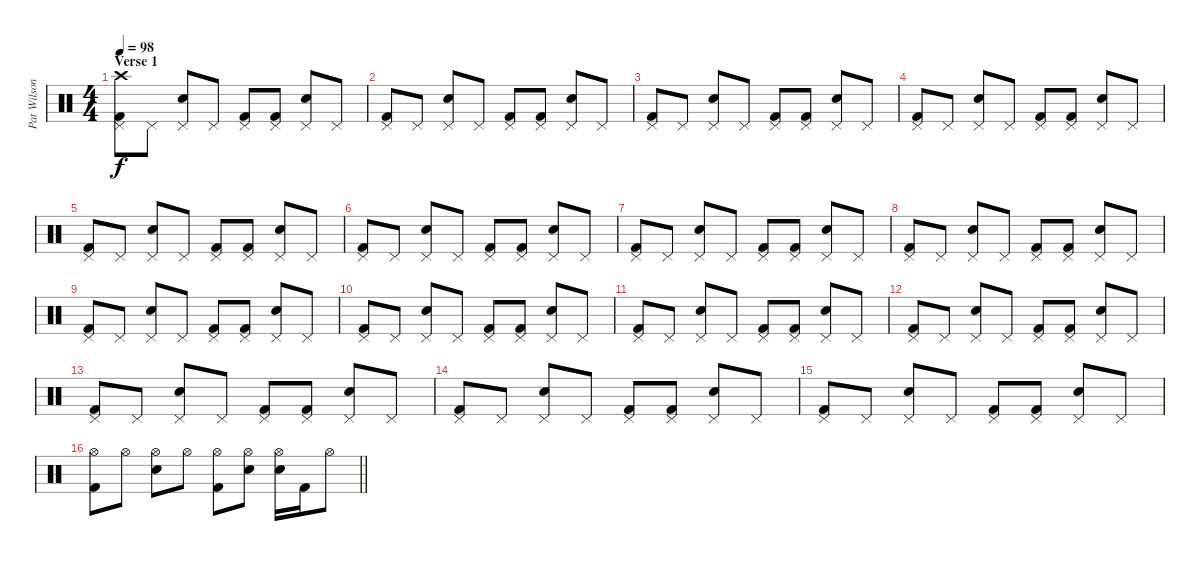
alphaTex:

\track ("Pat Wilson - Drums" "Pat Wilson") {instrument percussion}
\staff {score}
\articulation defaults
\ts (4 4)
\section ("" "Verse 1")
\tempo 98
\clef neutral
\ks c
("Crash high (hit)" "Pedal Hi-Hat (hit)" "Kick (hit) 2").8{dy f} "Pedal Hi-Hat (hit)".8 ("Pedal Hi-Hat (hit)" "Electric Snare (hit)").8 "Pedal Hi-Hat (hit)".8 ("Pedal Hi-Hat (hit)" "Kick (hit) 2").8 ("Pedal Hi-Hat (hit)" "Kick (hit) 2").8 ("Pedal Hi-Hat (hit)" "Electric Snare (hit)").8 "Pedal Hi-Hat (hit)".8 |
("Pedal Hi-Hat (hit)" "Kick (hit) 2").8 "Pedal Hi-Hat (hit)".8 ("Pedal Hi-Hat (hit)" "Electric Snare (hit)").8 "Pedal Hi-Hat (hit)".8 ("Pedal Hi-Hat (hit)" "Kick (hit) 2").8 ("Pedal Hi-Hat (hit)" "Kick (hit) 2").8 ("Pedal Hi-Hat (hit)" "Electric Snare (hit)").8 "Pedal Hi-Hat (hit)".8 |
("Pedal Hi-Hat (hit)" "Kick (hit) 2").8 "Pedal Hi-Hat (hit)".8 ("Pedal Hi-Hat (hit)" "Electric Snare (hit)").8 "Pedal Hi-Hat (hit)".8 ("Pedal Hi-Hat (hit)" "Kick (hit) 2").8 ("Pedal Hi-Hat (hit)" "Kick (hit) 2").8 ("Pedal Hi-Hat (hit)" "Electric Snare (hit)").8 "Pedal Hi-Hat (hit)".8 |
("Pedal Hi-Hat (hit)" "Kick (hit) 2").8 "Pedal Hi-Hat (hit)".8 ("Pedal Hi-Hat (hit)" "Electric Snare (hit)").8 "Pedal Hi-Hat (hit)".8 ("Pedal Hi-Hat (hit)" "Kick (hit) 2").8 ("Pedal Hi-Hat (hit)" "Kick (hit) 2").8 ("Pedal Hi-Hat (hit)" "Electric Snare (hit)").8 "Pedal Hi-Hat (hit)".8 |
("Pedal Hi-Hat (hit)" "Kick (hit) 2").8 "Pedal Hi-Hat (hit)".8 ("Pedal Hi-Hat (hit)" "Electric Snare (hit)").8 "Pedal Hi-Hat (hit)".8 ("Pedal Hi-Hat (hit)" "Kick (hit) 2").8 ("Pedal Hi-Hat (hit)" "Kick (hit) 2").8 ("Pedal Hi-Hat (hit)" "Electric Snare (hit)").8 "Pedal Hi-Hat (hit)".8 |
("Pedal Hi-Hat (hit)" "Kick (hit) 2").8 "Pedal Hi-Hat (hit)".8 ("Pedal Hi-Hat (hit)" "Electric Snare (hit)").8 "Pedal Hi-Hat (hit)".8 ("Pedal Hi-Hat (hit)" "Kick (hit) 2").8 ("Pedal Hi-Hat (hit)" "Kick (hit) 2").8 ("Pedal Hi-Hat (hit)" "Electric Snare (hit)").8 "Pedal Hi-Hat (hit)".8 |
("Pedal Hi-Hat (hit)" "Kick (hit) 2").8 "Pedal Hi-Hat (hit)".8 ("Pedal Hi-Hat (hit)" "Electric Snare (hit)").8 "Pedal Hi-Hat (hit)".8 ("Pedal Hi-Hat (hit)" "Kick (hit) 2").8 ("Pedal Hi-Hat (hit)" "Kick (hit) 2").8 ("Pedal Hi-Hat (hit)" "Electric Snare (hit)").8 "Pedal Hi-Hat (hit)".8 |
("Pedal Hi-Hat (hit)" "Kick (hit) 2").8 "Pedal Hi-Hat (hit)".8 ("Pedal Hi-Hat (hit)" "Electric Snare (hit)").8 "Pedal Hi-Hat (hit)".8 ("Pedal Hi-Hat (hit)" "Kick (hit) 2").8 ("Pedal Hi-Hat (hit)" "Kick (hit) 2").8 ("Pedal Hi-Hat (hit)" "Electric Snare (hit)").8 "Pedal Hi-Hat (hit)".8 |
("Pedal Hi-Hat (hit)" "Kick (hit) 2").8 "Pedal Hi-Hat (hit)".8 ("Pedal Hi-Hat (hit)" "Electric Snare (hit)").8 "Pedal Hi-Hat (hit)".8 ("Pedal Hi-Hat (hit)" "Kick (hit) 2").8 ("Pedal Hi-Hat (hit)" "Kick (hit) 2").8 ("Pedal Hi-Hat (hit)" "Electric Snare (hit)").8 "Pedal Hi-Hat (hit)".8 |
("Pedal Hi-Hat (hit)" "Kick (hit) 2").8 "Pedal Hi-Hat (hit)".8 ("Pedal Hi-Hat (hit)" "Electric Snare (hit)").8 "Pedal Hi-Hat (hit)".8 ("Pedal Hi-Hat (hit)" "Kick (hit) 2").8 ("Pedal Hi-Hat (hit)" "Kick (hit) 2").8 ("Pedal Hi-Hat (hit)" "Electric Snare (hit)").8 "Pedal Hi-Hat (hit)".8 |
("Pedal Hi-Hat (hit)" "Kick (hit) 2").8 "Pedal Hi-Hat (hit)".8 ("Pedal Hi-Hat (hit)" "Electric Snare (hit)").8 "Pedal Hi-Hat (hit)".8 ("Pedal Hi-Hat (hit)" "Kick (hit) 2").8 ("Pedal Hi-Hat (hit)" "Kick (hit) 2").8 ("Pedal Hi-Hat (hit)" "Electric Snare (hit)").8 "Pedal Hi-Hat (hit)".8 |
("Pedal Hi-Hat (hit)" "Kick (hit) 2").8 "Pedal Hi-Hat (hit)".8 ("Pedal Hi-Hat (hit)" "Electric Snare (hit)").8 "Pedal Hi-Hat (hit)".8 ("Pedal Hi-Hat (hit)" "Kick (hit) 2").8 ("Pedal Hi-Hat (hit)" "Kick (hit) 2").8 ("Pedal Hi-Hat (hit)" "Electric Snare (hit)").8 "Pedal Hi-Hat (hit)".8 |
("Pedal Hi-Hat (hit)" "Kick (hit) 2").8 "Pedal Hi-Hat (hit)".8 ("Pedal Hi-Hat (hit)" "Electric Snare (hit)").8 "Pedal Hi-Hat (hit)".8 ("Pedal Hi-Hat (hit)" "Kick (hit) 2").8 ("Pedal Hi-Hat (hit)" "Kick (hit) 2").8 ("Pedal Hi-Hat (hit)" "Electric Snare (hit)").8 "Pedal Hi-Hat (hit)".8 |
("Pedal Hi-Hat (hit)" "Kick (hit) 2").8 "Pedal Hi-Hat (hit)".8 ("Pedal Hi-Hat (hit)" "Electric Snare (hit)").8 "Pedal Hi-Hat (hit)".8 ("Pedal Hi-Hat (hit)" "Kick (hit) 2").8 ("Pedal Hi-Hat (hit)" "Kick (hit) 2").8 ("Pedal Hi-Hat (hit)" "Electric Snare (hit)").8 "Pedal Hi-Hat (hit)".8 |
("Pedal Hi-Hat (hit)" "Kick (hit) 2").8 "Pedal Hi-Hat (hit)".8 ("Pedal Hi-Hat (hit)" "Electric Snare (hit)").8 "Pedal Hi-Hat (hit)".8 ("Pedal Hi-Hat (hit)" "Kick (hit) 2").8 ("Pedal Hi-Hat (hit)" "Kick (hit) 2").8 ("Pedal Hi-Hat (hit)" "Electric Snare (hit)").8 "Pedal Hi-Hat (hit)".8 |
\barLineRight lightlight
("Hi-Hat (open)" "Kick (hit) 2").8 "Hi-Hat (open)".8 ("Hi-Hat (open)" "Electric Snare (hit)").8 "Hi-Hat (open)".8 ("Hi-Hat (open)" "Kick (hit) 2").8 ("Hi-Hat (open)" "Electric Snare (hit)").8 ("Hi-Hat (open)" "Electric Snare (hit)").16 "Kick (hit) 2".16 "Hi-Hat (open)".8
